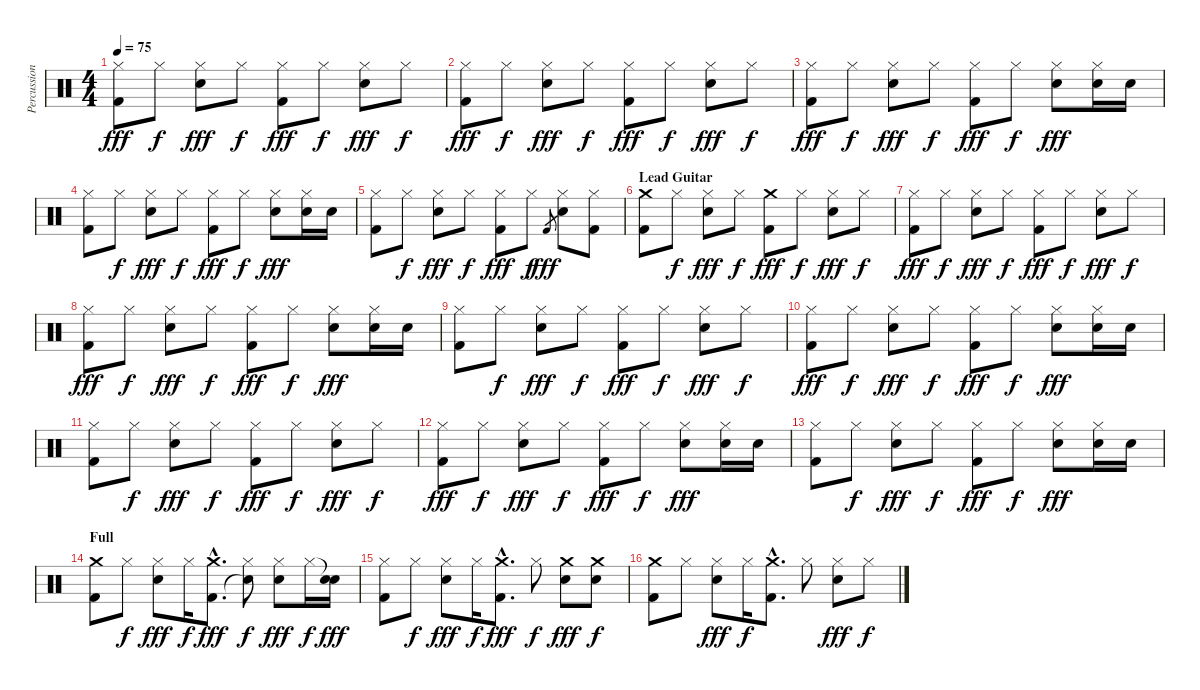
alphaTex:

\track ("Percussion" "Percussion") {instrument percussion}
\staff {score}
\articulation defaults
\ts (4 4)
\tempo 75
\clef neutral
\ks c
("Hi-Hat (closed)" "Kick (hit) 2").8{dy fff} "Hi-Hat (closed)".8{dy f} ("Hi-Hat (closed)" "Electric Snare (hit)").8{dy fff} "Hi-Hat (closed)".8{dy f} ("Hi-Hat (closed)" "Kick (hit) 2").8{dy fff} "Hi-Hat (closed)".8{dy f} ("Hi-Hat (closed)" "Electric Snare (hit)").8{dy fff} "Hi-Hat (closed)".8{dy f} |
("Hi-Hat (closed)" "Kick (hit) 2").8{dy fff} "Hi-Hat (closed)".8{dy f} ("Hi-Hat (closed)" "Electric Snare (hit)").8{dy fff} "Hi-Hat (closed)".8{dy f} ("Hi-Hat (closed)" "Kick (hit) 2").8{dy fff} "Hi-Hat (closed)".8{dy f} ("Hi-Hat (closed)" "Electric Snare (hit)").8{dy fff} "Hi-Hat (closed)".8{dy f} |
("Hi-Hat (closed)" "Kick (hit) 2").8{dy fff} "Hi-Hat (closed)".8{dy f} ("Hi-Hat (closed)" "Electric Snare (hit)").8{dy fff} "Hi-Hat (closed)".8{dy f} ("Hi-Hat (closed)" "Kick (hit) 2").8{dy fff} "Hi-Hat (closed)".8{dy f} ("Hi-Hat (closed)" "Electric Snare (hit)").8{dy fff} ("Hi-Hat (closed)" "Electric Snare (hit)").16 "Electric Snare (hit)".16 |
("Hi-Hat (closed)" "Kick (hit) 2").8 "Hi-Hat (closed)".8{dy f} ("Hi-Hat (closed)" "Electric Snare (hit)").8{dy fff} "Hi-Hat (closed)".8{dy f} ("Hi-Hat (closed)" "Kick (hit) 2").8{dy fff} "Hi-Hat (closed)".8{dy f} ("Hi-Hat (closed)" "Electric Snare (hit)").8{dy fff} ("Hi-Hat (closed)" "Electric Snare (hit)").16 "Electric Snare (hit)".16 |
("Hi-Hat (closed)" "Kick (hit) 2").8 "Hi-Hat (closed)".8{dy f} ("Hi-Hat (closed)" "Electric Snare (hit)").8{dy fff} "Hi-Hat (closed)".8{dy f} ("Hi-Hat (closed)" "Kick (hit) 2").8{dy fff} "Hi-Hat (closed)".8{dy f} "Kick (hit) 2".8{gr dy fff} ("Hi-Hat (closed)" "Electric Snare (hit)").8 ("Hi-Hat (closed)" "Kick (hit) 2").8 |
\section ("" "Lead Guitar")
("Crash medium (hit)" "Kick (hit) 2").8 "Hi-Hat (closed)".8{dy f} ("Hi-Hat (closed)" "Electric Snare (hit)").8{dy fff} "Hi-Hat (closed)".8{dy f} ("Crash medium (hit)" "Kick (hit) 2").8{dy fff} "Hi-Hat (closed)".8{dy f} ("Hi-Hat (closed)" "Electric Snare (hit)").8{dy fff} "Hi-Hat (closed)".8{dy f} |
("Hi-Hat (closed)" "Kick (hit) 2").8{dy fff} "Hi-Hat (closed)".8{dy f} ("Hi-Hat (closed)" "Electric Snare (hit)").8{dy fff} "Hi-Hat (closed)".8{dy f} ("Hi-Hat (closed)" "Kick (hit) 2").8{dy fff} "Hi-Hat (closed)".8{dy f} ("Hi-Hat (closed)" "Electric Snare (hit)").8{dy fff} "Hi-Hat (closed)".8{dy f} |
("Hi-Hat (closed)" "Kick (hit) 2").8{dy fff} "Hi-Hat (closed)".8{dy f} ("Hi-Hat (closed)" "Electric Snare (hit)").8{dy fff} "Hi-Hat (closed)".8{dy f} ("Hi-Hat (closed)" "Kick (hit) 2").8{dy fff} "Hi-Hat (closed)".8{dy f} ("Hi-Hat (closed)" "Electric Snare (hit)").8{dy fff} ("Hi-Hat (closed)" "Electric Snare (hit)").16 "Electric Snare (hit)".16 |
("Hi-Hat (closed)" "Kick (hit) 2").8 "Hi-Hat (closed)".8{dy f} ("Hi-Hat (closed)" "Electric Snare (hit)").8{dy fff} "Hi-Hat (closed)".8{dy f} ("Hi-Hat (closed)" "Kick (hit) 2").8{dy fff} "Hi-Hat (closed)".8{dy f} ("Hi-Hat (closed)" "Electric Snare (hit)").8{dy fff} "Hi-Hat (closed)".8{dy f} |
("Hi-Hat (closed)" "Kick (hit) 2").8{dy fff} "Hi-Hat (closed)".8{dy f} ("Hi-Hat (closed)" "Electric Snare (hit)").8{dy fff} "Hi-Hat (closed)".8{dy f} ("Hi-Hat (closed)" "Kick (hit) 2").8{dy fff} "Hi-Hat (closed)".8{dy f} ("Hi-Hat (closed)" "Electric Snare (hit)").8{dy fff} ("Hi-Hat (closed)" "Electric Snare (hit)").16 "Electric Snare (hit)".16 |
("Hi-Hat (closed)" "Kick (hit) 2").8 "Hi-Hat (closed)".8{dy f} ("Hi-Hat (closed)" "Electric Snare (hit)").8{dy fff} "Hi-Hat (closed)".8{dy f} ("Hi-Hat (closed)" "Kick (hit) 2").8{dy fff} "Hi-Hat (closed)".8{dy f} ("Hi-Hat (closed)" "Electric Snare (hit)").8{dy fff} "Hi-Hat (closed)".8{dy f} |
("Hi-Hat (closed)" "Kick (hit) 2").8{dy fff} "Hi-Hat (closed)".8{dy f} ("Hi-Hat (closed)" "Electric Snare (hit)").8{dy fff} "Hi-Hat (closed)".8{dy f} ("Hi-Hat (closed)" "Kick (hit) 2").8{dy fff} "Hi-Hat (closed)".8{dy f} ("Hi-Hat (closed)" "Electric Snare (hit)").8{dy fff} ("Hi-Hat (closed)" "Electric Snare (hit)").16 "Electric Snare (hit)".16 |
("Hi-Hat (closed)" "Kick (hit) 2").8 "Hi-Hat (closed)".8{dy f} ("Hi-Hat (closed)" "Electric Snare (hit)").8{dy fff} "Hi-Hat (closed)".8{dy f} ("Hi-Hat (closed)" "Kick (hit) 2").8{dy fff} "Hi-Hat (closed)".8{dy f} ("Hi-Hat (closed)" "Electric Snare (hit)").8{dy fff} ("Hi-Hat (closed)" "Electric Snare (hit)").16 "Electric Snare (hit)".16 |
\section ("" "Full")
("Crash medium (hit)" "Kick (hit) 2").8 "Hi-Hat (closed)".8{dy f} ("Hi-Hat (closed)" "Electric Snare (hit)").8{dy fff} "Hi-Hat (closed)".16{dy f} ("Crash medium (hit)" "Kick (hit) 2"{hac}).8{d dy fff} ("Hi-Hat (closed)" "Snare (hit)"{t}).8{dy f} ("Hi-Hat (closed)" "Electric Snare (hit)").8{dy fff} "Hi-Hat (closed)".16{dy f} ("Snare (hit)"{t} "Electric Snare (hit)").16{dy fff} |
("Hi-Hat (closed)" "Kick (hit) 2").8 "Hi-Hat (closed)".8{dy f} ("Hi-Hat (closed)" "Electric Snare (hit)").8{dy fff} "Hi-Hat (closed)".16{dy f} ("Crash medium (hit)"{hac} "Kick (hit) 2"{hac}).8{d dy fff} "Hi-Hat (closed)".8{dy f} ("Crash medium (hit)" "Electric Snare (hit)").8{dy fff} ("Crash medium (hit)" "Electric Snare (hit)").8{dy f} |
("Crash medium (hit)" "Kick (hit) 2").8 "Hi-Hat (closed)".8 ("Hi-Hat (closed)" "Electric Snare (hit)").8{dy fff} "Hi-Hat (closed)".16{dy f} ("Crash medium (hit)"{hac} "Kick (hit) 2"{hac}).8{d} "Hi-Hat (closed)".8 ("Hi-Hat (closed)" "Electric Snare (hit)").8{dy fff} "Hi-Hat (closed)".8{dy f}
